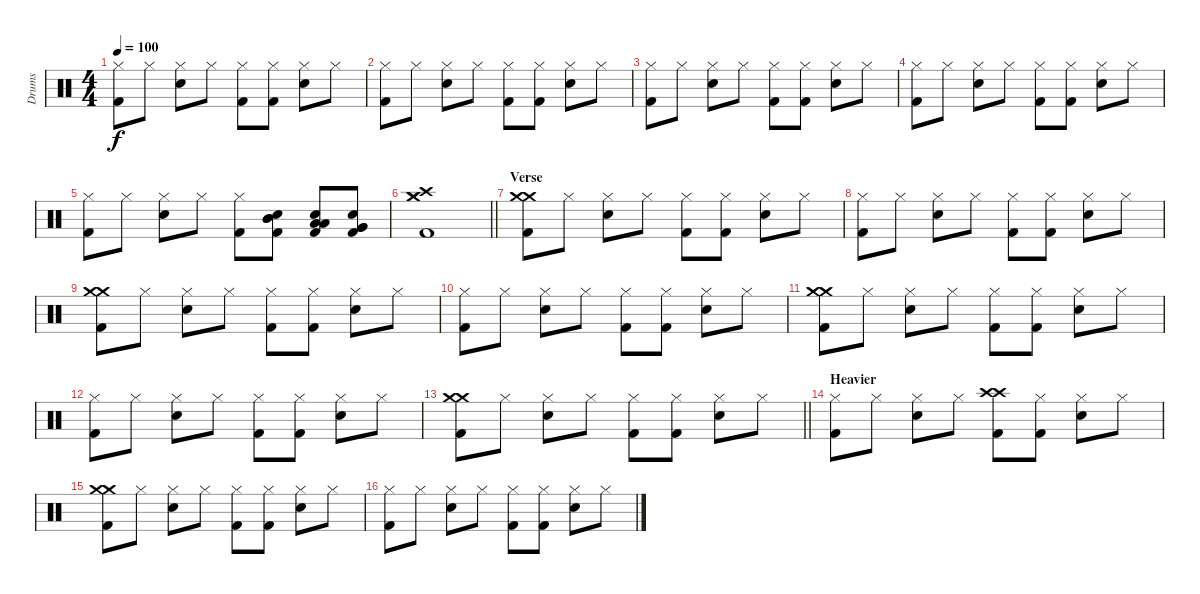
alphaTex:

\track ("Drums" "Drums") {instrument percussion}
\staff {score}
\articulation defaults
\ts (4 4)
\tempo 100
\clef neutral
\ks c
("Hi-Hat (closed)" "Kick (hit) 2").8{dy f} "Hi-Hat (closed)".8 ("Hi-Hat (closed)" "Electric Snare (hit)").8 "Hi-Hat (closed)".8 ("Hi-Hat (closed)" "Kick (hit) 2").8 ("Hi-Hat (closed)" "Kick (hit) 2").8 ("Hi-Hat (closed)" "Electric Snare (hit)").8 "Hi-Hat (closed)".8 |
("Hi-Hat (closed)" "Kick (hit) 2").8 "Hi-Hat (closed)".8 ("Hi-Hat (closed)" "Electric Snare (hit)").8 "Hi-Hat (closed)".8 ("Hi-Hat (closed)" "Kick (hit) 2").8 ("Hi-Hat (closed)" "Kick (hit) 2").8 ("Hi-Hat (closed)" "Electric Snare (hit)").8 "Hi-Hat (closed)".8 |
("Hi-Hat (closed)" "Kick (hit) 2").8 "Hi-Hat (closed)".8 ("Hi-Hat (closed)" "Electric Snare (hit)").8 "Hi-Hat (closed)".8 ("Hi-Hat (closed)" "Kick (hit) 2").8 ("Hi-Hat (closed)" "Kick (hit) 2").8 ("Hi-Hat (closed)" "Electric Snare (hit)").8 "Hi-Hat (closed)".8 |
("Hi-Hat (closed)" "Kick (hit) 2").8 "Hi-Hat (closed)".8 ("Hi-Hat (closed)" "Electric Snare (hit)").8 "Hi-Hat (closed)".8 ("Hi-Hat (closed)" "Kick (hit) 2").8 ("Hi-Hat (closed)" "Kick (hit) 2").8 ("Hi-Hat (closed)" "Electric Snare (hit)").8 "Hi-Hat (closed)".8 |
("Hi-Hat (closed)" "Kick (hit) 2").8 "Hi-Hat (closed)".8 ("Hi-Hat (closed)" "Electric Snare (hit)").8 "Hi-Hat (closed)".8 ("Hi-Hat (closed)" "Kick (hit) 2").8 ("Mid Tom (hit)" "Mid Tom (hit)" "Electric Snare (hit)" "Kick (hit) 2").8 ("Low Tom (hit)" "Low Tom (hit)" "Electric Snare (hit)" "Kick (hit) 2").8 ("Electric Snare (hit)" "Very Low Tom (hit)" "Very Low Tom (hit)" "Kick (hit) 2").8 |
\barLineRight lightlight
("Crash high (hit)" "Crash medium (hit)" "Crash medium (hit)" "Kick (hit) 2").1 |
\section ("" "Verse")
("Crash medium (hit)" "Crash medium (hit)" "Kick (hit) 2").8 "Hi-Hat (closed)".8 ("Hi-Hat (closed)" "Electric Snare (hit)").8 "Hi-Hat (closed)".8 ("Hi-Hat (closed)" "Kick (hit) 2").8 ("Hi-Hat (closed)" "Kick (hit) 2").8 ("Hi-Hat (closed)" "Electric Snare (hit)").8 "Hi-Hat (closed)".8 |
("Hi-Hat (closed)" "Kick (hit) 2").8 "Hi-Hat (closed)".8 ("Hi-Hat (closed)" "Electric Snare (hit)").8 "Hi-Hat (closed)".8 ("Hi-Hat (closed)" "Kick (hit) 2").8 ("Hi-Hat (closed)" "Kick (hit) 2").8 ("Hi-Hat (closed)" "Electric Snare (hit)").8 "Hi-Hat (closed)".8 |
("Crash medium (hit)" "Crash medium (hit)" "Kick (hit) 2").8 "Hi-Hat (closed)".8 ("Hi-Hat (closed)" "Electric Snare (hit)").8 "Hi-Hat (closed)".8 ("Hi-Hat (closed)" "Kick (hit) 2").8 ("Hi-Hat (closed)" "Kick (hit) 2").8 ("Hi-Hat (closed)" "Electric Snare (hit)").8 "Hi-Hat (closed)".8 |
("Hi-Hat (closed)" "Kick (hit) 2").8 "Hi-Hat (closed)".8 ("Hi-Hat (closed)" "Electric Snare (hit)").8 "Hi-Hat (closed)".8 ("Hi-Hat (closed)" "Kick (hit) 2").8 ("Hi-Hat (closed)" "Kick (hit) 2").8 ("Hi-Hat (closed)" "Electric Snare (hit)").8 "Hi-Hat (closed)".8 |
("Crash medium (hit)" "Crash medium (hit)" "Kick (hit) 2").8 "Hi-Hat (closed)".8 ("Hi-Hat (closed)" "Electric Snare (hit)").8 "Hi-Hat (closed)".8 ("Hi-Hat (closed)" "Kick (hit) 2").8 ("Hi-Hat (closed)" "Kick (hit) 2").8 ("Hi-Hat (closed)" "Electric Snare (hit)").8 "Hi-Hat (closed)".8 |
("Hi-Hat (closed)" "Kick (hit) 2").8 "Hi-Hat (closed)".8 ("Hi-Hat (closed)" "Electric Snare (hit)").8 "Hi-Hat (closed)".8 ("Hi-Hat (closed)" "Kick (hit) 2").8 ("Hi-Hat (closed)" "Kick (hit) 2").8 ("Hi-Hat (closed)" "Electric Snare (hit)").8 "Hi-Hat (closed)".8 |
\barLineRight lightlight
("Crash medium (hit)" "Crash medium (hit)" "Kick (hit) 2").8 "Hi-Hat (closed)".8 ("Hi-Hat (closed)" "Electric Snare (hit)").8 "Hi-Hat (closed)".8 ("Hi-Hat (closed)" "Kick (hit) 2").8 ("Hi-Hat (closed)" "Kick (hit) 2").8 ("Hi-Hat (closed)" "Electric Snare (hit)").8 "Hi-Hat (closed)".8 |
\section ("" "Heavier")
("Hi-Hat (closed)" "Kick (hit) 2").8 "Hi-Hat (closed)".8 ("Hi-Hat (closed)" "Electric Snare (hit)").8 "Hi-Hat (closed)".8 ("Crash high (hit)" "Crash high (hit)" "Kick (hit) 2").8 ("Hi-Hat (closed)" "Kick (hit) 2").8 ("Hi-Hat (closed)" "Electric Snare (hit)").8 "Hi-Hat (closed)".8 |
("Crash medium (hit)" "Crash medium (hit)" "Kick (hit) 2").8 "Hi-Hat (closed)".8 ("Hi-Hat (closed)" "Electric Snare (hit)").8 "Hi-Hat (closed)".8 ("Hi-Hat (closed)" "Kick (hit) 2").8 ("Hi-Hat (closed)" "Kick (hit) 2").8 ("Hi-Hat (closed)" "Electric Snare (hit)").8 "Hi-Hat (closed)".8 |
("Hi-Hat (closed)" "Kick (hit) 2").8 "Hi-Hat (closed)".8 ("Hi-Hat (closed)" "Electric Snare (hit)").8 "Hi-Hat (closed)".8 ("Hi-Hat (closed)" "Kick (hit) 2").8 ("Hi-Hat (closed)" "Kick (hit) 2").8 ("Hi-Hat (closed)" "Electric Snare (hit)").8 "Hi-Hat (closed)".8
